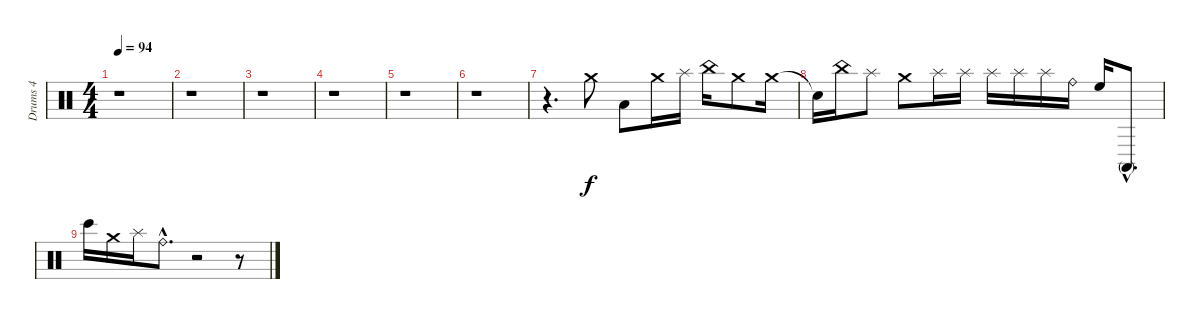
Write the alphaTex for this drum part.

\track ("Drums 4" "Drums 4") {instrument percussion}
\staff {score}
\articulation defaults
\ts (4 4)
\tempo 94
\clef neutral
\ks c
r.1{dy f} |
r.1 |
r.1 |
r.1 |
r.1 |
r.1 |
r.4{d} "Crash medium (hit)".8 "Low Tom (hit)".8 "Crash medium (hit)".16 "Splash (hit)".16 "China (hit)".16 "Crash medium (hit)".8 "Crash medium (hit)".16 |
"Snare (hit)"{t}.16 "China (hit)".16 "Splash (hit)".8 "Crash medium (hit)".8 "Splash (hit)".16 "Splash (hit)".16 "Splash (hit)".16 "Splash (hit)".16 "Splash (hit)".16 "Ride (bell)".16 "High Floor Tom (hit)".16 "Conga high (mute)"{hac}.8{d} |
"Bongo High (hit)".16 "Crash medium (hit)".16 "Splash (hit)".16 "Ride (bell)"{hac}.8{d} r.2 r.8
